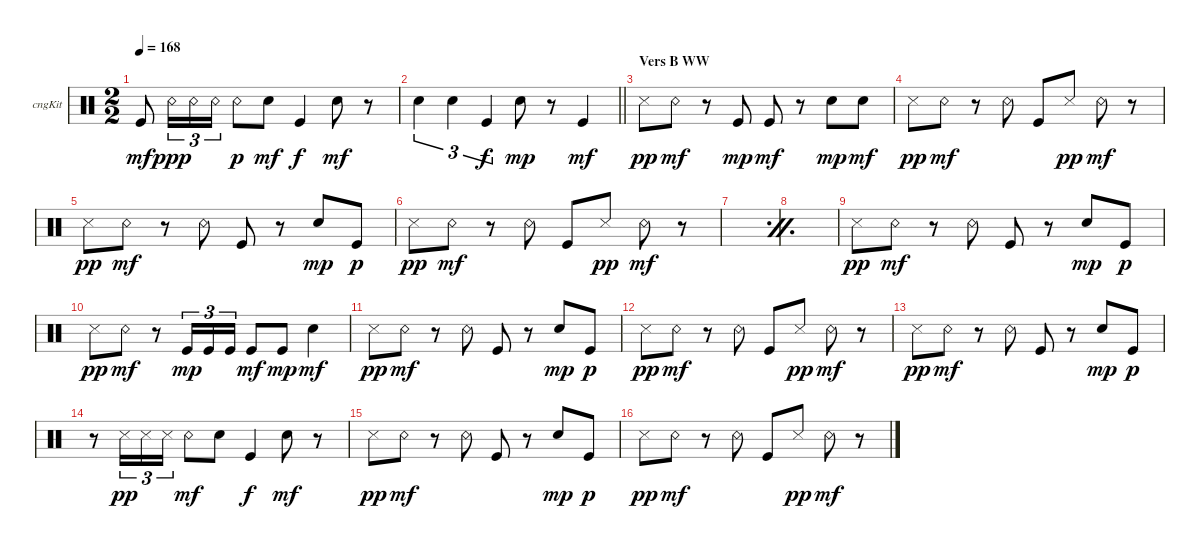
\bracketExtendMode groupsimilarinstruments
\multiTrackTrackNamePolicy hidden
\firstSystemTrackNameOrientation horizontal
\otherSystemsTrackNameOrientation horizontal
\track ("Congas" "cngKit") {instrument percussion}
\staff {score}
\articulation defaults
\ts (2 2)
\tempo 168
\clef neutral
\ks c "Kick (hit)".8{dy mf} "Snare (rim shot)".16{tu (3 2) dy ppp} "Snare (rim shot)".16{tu (3 2)} "Snare (rim shot)".16{tu (3 2)} "Snare (rim shot)".8{dy p} "Snare (hit) 2".8{dy mf} "Kick (hit)".4{dy f} "Snare (hit) 2".8{dy mf}
r.8 |
\barLineRight lightlight "Snare (hit) 2".4{tu (3 2)} "Snare (hit) 2".4{tu (3 2)} "Kick (hit)".4{tu (3 2) dy f} "Snare (hit) 2".8{dy mp}
r.8 "Kick (hit)".4{dy mf} |
\section ("" "Vers B WW")
"Snare (side stick) 3".8{dy pp} "Snare (rim shot)".8{dy mf} r.8 "Kick (hit)".8{dy mp} "Kick (hit)".8{dy mf} r.8 "Snare (hit) 2".8{dy mp} "Snare (hit) 2".8{dy mf} |
"Snare (side stick) 3".8{dy pp} "Snare (rim shot)".8{dy mf} r.8 "Snare (rim shot)".8 "Kick (hit)".8 "Snare (side stick) 3".8{dy pp} "Snare (rim shot)".8{dy mf} r.8 |
"Snare (side stick) 3".8{dy pp} "Snare (rim shot)".8{dy mf} r.8 "Snare (rim shot)".8 "Kick (hit)".8 r.8 "Snare (hit) 2".8{dy mp} "Kick (hit)".8{dy p} |
"Snare (side stick) 3".8{dy pp} "Snare (rim shot)".8{dy mf} r.8 "Snare (rim shot)".8 "Kick (hit)".8 "Snare (side stick) 3".8{dy pp} "Snare (rim shot)".8{dy mf} r.8 |
\simile firstofdouble
|
\simile secondofdouble
|
\simile none "Snare (side stick) 3".8{dy pp} "Snare (rim shot)".8{dy mf}
r.8 "Snare (rim shot)".8 "Kick (hit)".8 r.8 "Snare (hit) 2".8{dy mp} "Kick (hit)".8{dy p} |
"Snare (side stick) 3".8{dy pp} "Snare (rim shot)".8{dy mf} r.8 "Kick (hit)".16{tu (3 2) dy mp} "Kick (hit)".16{tu (3 2)} "Kick (hit)".16{tu (3 2)} "Kick (hit)".8{dy mf} "Kick (hit)".8{dy mp} "Snare (hit) 2".4{dy mf} |
"Snare (side stick) 3".8{dy pp} "Snare (rim shot)".8{dy mf} r.8 "Snare (rim shot)".8 "Kick (hit)".8 r.8 "Snare (hit) 2".8{dy mp} "Kick (hit)".8{dy p} |
"Snare (side stick) 3".8{dy pp} "Snare (rim shot)".8{dy mf} r.8 "Snare (rim shot)".8 "Kick (hit)".8 "Snare (side stick) 3".8{dy pp} "Snare (rim shot)".8{dy mf} r.8 |
"Snare (side stick) 3".8{dy pp} "Snare (rim shot)".8{dy mf} r.8 "Snare (rim shot)".8 "Kick (hit)".8 r.8 "Snare (hit) 2".8{dy mp} "Kick (hit)".8{dy p} |
r.8 "Snare (side stick) 3".16{tu (3 2) dy pp} "Snare (side stick) 3".16{tu (3 2)} "Snare (side stick) 3".16{tu (3 2)} "Snare (rim shot)".8{dy mf} "Snare (hit) 2".8 "Kick (hit)".4{dy f} "Snare (hit) 2".8{dy mf} r.8 |
"Snare (side stick) 3".8{dy pp} "Snare (rim shot)".8{dy mf} r.8 "Snare (rim shot)".8 "Kick (hit)".8 r.8 "Snare (hit) 2".8{dy mp} "Kick (hit)".8{dy p} |
"Snare (side stick) 3".8{dy pp} "Snare (rim shot)".8{dy mf} r.8 "Snare (rim shot)".8 "Kick (hit)".8 "Snare (side stick) 3".8{dy pp} "Snare (rim shot)".8{dy mf} r.8
